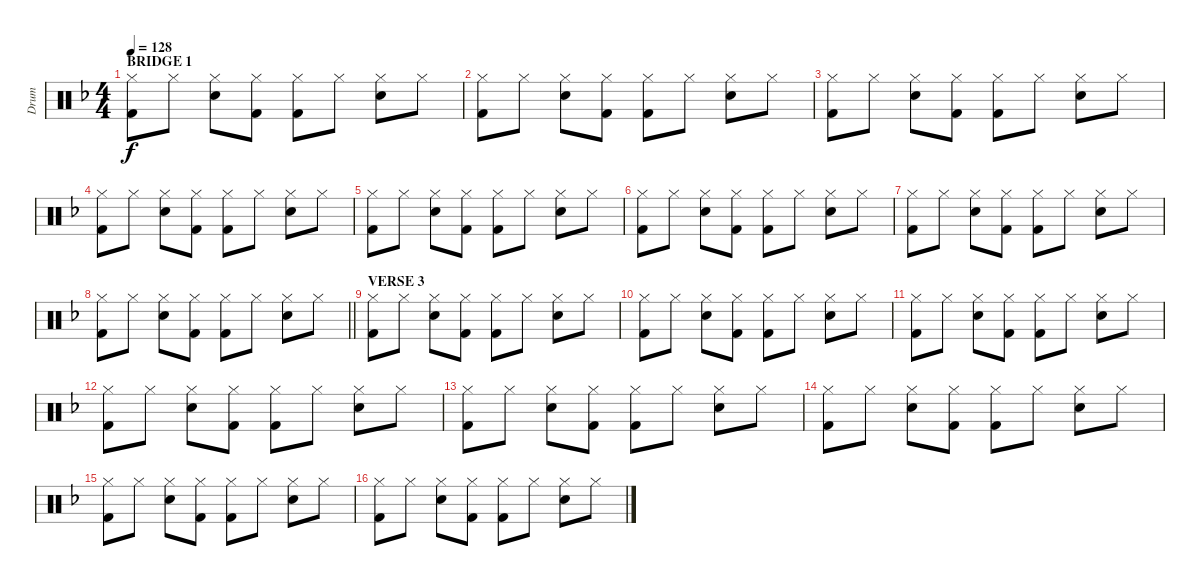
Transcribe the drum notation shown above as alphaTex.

\track ("Drum" "Drum") {instrument percussion}
\staff {score}
\articulation defaults
\ts (4 4)
\section ("" "BRIDGE 1")
\tempo 128
\clef neutral
\ks f
("Hi-Hat (closed)" "Kick (hit) 2").8{dy f} "Hi-Hat (closed)".8 ("Hi-Hat (closed)" "Electric Snare (hit)").8 ("Hi-Hat (closed)" "Kick (hit) 2").8 ("Hi-Hat (closed)" "Kick (hit) 2").8 "Hi-Hat (closed)".8 ("Hi-Hat (closed)" "Electric Snare (hit)").8 "Hi-Hat (closed)".8 |
("Hi-Hat (closed)" "Kick (hit) 2").8 "Hi-Hat (closed)".8 ("Hi-Hat (closed)" "Electric Snare (hit)").8 ("Hi-Hat (closed)" "Kick (hit) 2").8 ("Hi-Hat (closed)" "Kick (hit) 2").8 "Hi-Hat (closed)".8 ("Hi-Hat (closed)" "Electric Snare (hit)").8 "Hi-Hat (closed)".8 |
("Hi-Hat (closed)" "Kick (hit) 2").8 "Hi-Hat (closed)".8 ("Hi-Hat (closed)" "Electric Snare (hit)").8 ("Hi-Hat (closed)" "Kick (hit) 2").8 ("Hi-Hat (closed)" "Kick (hit) 2").8 "Hi-Hat (closed)".8 ("Hi-Hat (closed)" "Electric Snare (hit)").8 "Hi-Hat (closed)".8 |
("Hi-Hat (closed)" "Kick (hit) 2").8 "Hi-Hat (closed)".8 ("Hi-Hat (closed)" "Electric Snare (hit)").8 ("Hi-Hat (closed)" "Kick (hit) 2").8 ("Hi-Hat (closed)" "Kick (hit) 2").8 "Hi-Hat (closed)".8 ("Hi-Hat (closed)" "Electric Snare (hit)").8 "Hi-Hat (closed)".8 |
("Hi-Hat (closed)" "Kick (hit) 2").8 "Hi-Hat (closed)".8 ("Hi-Hat (closed)" "Electric Snare (hit)").8 ("Hi-Hat (closed)" "Kick (hit) 2").8 ("Hi-Hat (closed)" "Kick (hit) 2").8 "Hi-Hat (closed)".8 ("Hi-Hat (closed)" "Electric Snare (hit)").8 "Hi-Hat (closed)".8 |
("Hi-Hat (closed)" "Kick (hit) 2").8 "Hi-Hat (closed)".8 ("Hi-Hat (closed)" "Electric Snare (hit)").8 ("Hi-Hat (closed)" "Kick (hit) 2").8 ("Hi-Hat (closed)" "Kick (hit) 2").8 "Hi-Hat (closed)".8 ("Hi-Hat (closed)" "Electric Snare (hit)").8 "Hi-Hat (closed)".8 |
("Hi-Hat (closed)" "Kick (hit) 2").8 "Hi-Hat (closed)".8 ("Hi-Hat (closed)" "Electric Snare (hit)").8 ("Hi-Hat (closed)" "Kick (hit) 2").8 ("Hi-Hat (closed)" "Kick (hit) 2").8 "Hi-Hat (closed)".8 ("Hi-Hat (closed)" "Electric Snare (hit)").8 "Hi-Hat (closed)".8 |
\barLineRight lightlight
("Hi-Hat (closed)" "Kick (hit) 2").8 "Hi-Hat (closed)".8 ("Hi-Hat (closed)" "Electric Snare (hit)").8 ("Hi-Hat (closed)" "Kick (hit) 2").8 ("Hi-Hat (closed)" "Kick (hit) 2").8 "Hi-Hat (closed)".8 ("Hi-Hat (closed)" "Electric Snare (hit)").8 "Hi-Hat (closed)".8 |
\section ("" "VERSE 3")
("Hi-Hat (closed)" "Kick (hit) 2").8 "Hi-Hat (closed)".8 ("Hi-Hat (closed)" "Electric Snare (hit)").8 ("Hi-Hat (closed)" "Kick (hit) 2").8 ("Hi-Hat (closed)" "Kick (hit) 2").8 "Hi-Hat (closed)".8 ("Hi-Hat (closed)" "Electric Snare (hit)").8 "Hi-Hat (closed)".8 |
("Hi-Hat (closed)" "Kick (hit) 2").8 "Hi-Hat (closed)".8 ("Hi-Hat (closed)" "Electric Snare (hit)").8 ("Hi-Hat (closed)" "Kick (hit) 2").8 ("Hi-Hat (closed)" "Kick (hit) 2").8 "Hi-Hat (closed)".8 ("Hi-Hat (closed)" "Electric Snare (hit)").8 "Hi-Hat (closed)".8 |
("Hi-Hat (closed)" "Kick (hit) 2").8 "Hi-Hat (closed)".8 ("Hi-Hat (closed)" "Electric Snare (hit)").8 ("Hi-Hat (closed)" "Kick (hit) 2").8 ("Hi-Hat (closed)" "Kick (hit) 2").8 "Hi-Hat (closed)".8 ("Hi-Hat (closed)" "Electric Snare (hit)").8 "Hi-Hat (closed)".8 |
("Hi-Hat (closed)" "Kick (hit) 2").8 "Hi-Hat (closed)".8 ("Hi-Hat (closed)" "Electric Snare (hit)").8 ("Hi-Hat (closed)" "Kick (hit) 2").8 ("Hi-Hat (closed)" "Kick (hit) 2").8 "Hi-Hat (closed)".8 ("Hi-Hat (closed)" "Electric Snare (hit)").8 "Hi-Hat (closed)".8 |
("Hi-Hat (closed)" "Kick (hit) 2").8 "Hi-Hat (closed)".8 ("Hi-Hat (closed)" "Electric Snare (hit)").8 ("Hi-Hat (closed)" "Kick (hit) 2").8 ("Hi-Hat (closed)" "Kick (hit) 2").8 "Hi-Hat (closed)".8 ("Hi-Hat (closed)" "Electric Snare (hit)").8 "Hi-Hat (closed)".8 |
("Hi-Hat (closed)" "Kick (hit) 2").8 "Hi-Hat (closed)".8 ("Hi-Hat (closed)" "Electric Snare (hit)").8 ("Hi-Hat (closed)" "Kick (hit) 2").8 ("Hi-Hat (closed)" "Kick (hit) 2").8 "Hi-Hat (closed)".8 ("Hi-Hat (closed)" "Electric Snare (hit)").8 "Hi-Hat (closed)".8 |
("Hi-Hat (closed)" "Kick (hit) 2").8 "Hi-Hat (closed)".8 ("Hi-Hat (closed)" "Electric Snare (hit)").8 ("Hi-Hat (closed)" "Kick (hit) 2").8 ("Hi-Hat (closed)" "Kick (hit) 2").8 "Hi-Hat (closed)".8 ("Hi-Hat (closed)" "Electric Snare (hit)").8 "Hi-Hat (closed)".8 |
("Hi-Hat (closed)" "Kick (hit) 2").8 "Hi-Hat (closed)".8 ("Hi-Hat (closed)" "Electric Snare (hit)").8 ("Hi-Hat (closed)" "Kick (hit) 2").8 ("Hi-Hat (closed)" "Kick (hit) 2").8 "Hi-Hat (closed)".8 ("Hi-Hat (closed)" "Electric Snare (hit)").8 "Hi-Hat (closed)".8
